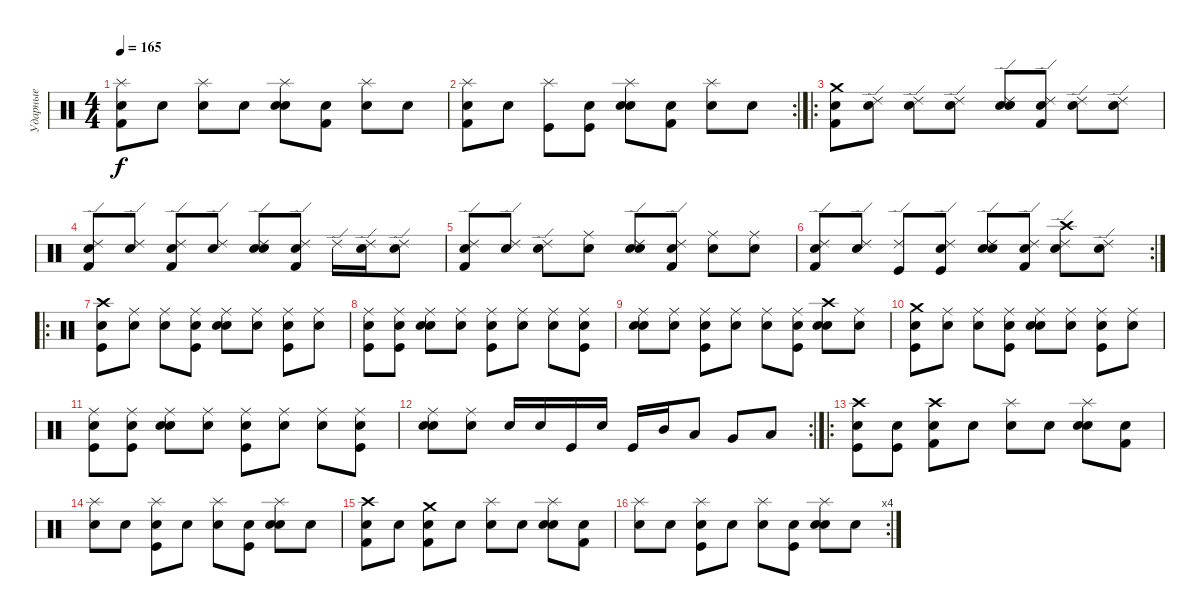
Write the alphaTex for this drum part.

\track ("Ударные" "Ударные") {instrument percussion}
\staff {score}
\articulation defaults
\ts (4 4)
\tempo 165
\clef neutral
\ks c
("Splash (hit)" "Kick (hit) 2" "Snare (hit)").8{dy f} "Snare (hit)".8 ("Splash (hit)" "Snare (hit)").8 "Snare (hit)".8 ("Snare (hit) 2" "Splash (hit)" "Snare (hit)").8 ("Kick (hit) 2" "Snare (hit)").8 ("Splash (hit)" "Snare (hit)").8 "Snare (hit)".8 |
\rc 2
("Splash (hit)" "Kick (hit) 2" "Snare (hit)").8 "Snare (hit)".8 ("Splash (hit)" "Kick (hit)").8 ("Kick (hit)" "Snare (hit)").8 ("Snare (hit) 2" "Splash (hit)" "Snare (hit)").8 ("Kick (hit) 2" "Snare (hit)").8 ("Splash (hit)" "Snare (hit)").8 "Snare (hit)".8 |
\ro
("Crash medium (hit)" "Kick (hit) 2" "Snare (hit)").8 ("Ride (edge) 2" "Snare (hit)").8 ("Ride (edge) 2" "Snare (hit)").8 ("Ride (edge) 2" "Snare (hit)").8 ("Snare (hit) 2" "Ride (edge) 2" "Snare (hit)").8 ("Ride (edge) 2" "Kick (hit) 2" "Snare (hit)").8 ("Ride (edge) 2" "Snare (hit)").8 ("Ride (edge) 2" "Snare (hit)").8 |
("Ride (edge) 2" "Kick (hit) 2" "Snare (hit)").8 ("Ride (edge) 2" "Snare (hit)").8 ("Ride (edge) 2" "Kick (hit) 2" "Snare (hit)").8 ("Ride (edge) 2" "Snare (hit)").8 ("Snare (hit) 2" "Ride (edge) 2" "Snare (hit)").8 ("Ride (edge) 2" "Kick (hit) 2" "Snare (hit)").8 "Ride (edge) 2".16 ("Ride (edge) 2" "Snare (hit)").16 ("Ride (edge) 2" "Snare (hit)").8 |
("Ride (edge) 2" "Kick (hit) 2" "Snare (hit)").8 ("Ride (edge) 2" "Snare (hit)").8 ("Ride (edge) 2" "Snare (hit)").8 ("Ride (middle)" "Snare (hit)").8 ("Snare (hit) 2" "Ride (edge) 2" "Snare (hit)").8 ("Ride (edge) 2" "Kick (hit) 2" "Snare (hit)").8 ("Ride (middle)" "Snare (hit)").8 ("Ride (middle)" "Snare (hit)").8 |
\rc 2
("Ride (edge) 2" "Kick (hit) 2" "Snare (hit)").8 ("Ride (edge) 2" "Snare (hit)").8 ("Ride (edge) 2" "Kick (hit)").8 ("Ride (edge) 2" "Kick (hit)" "Snare (hit)").8 ("Snare (hit) 2" "Ride (edge) 2" "Snare (hit)").8 ("Ride (edge) 2" "Kick (hit) 2" "Snare (hit)").8 ("Crash high (hit)" "Ride (edge) 2" "Snare (hit)").8 ("Ride (edge) 2" "Snare (hit)").8 |
\ro
("Crash high (hit)" "Kick (hit)" "Snare (hit)").8 ("Ride (middle)" "Snare (hit)").8 ("Ride (middle)" "Snare (hit)").8 ("Ride (middle)" "Kick (hit)" "Snare (hit)").8 ("Snare (hit) 2" "Ride (middle)" "Snare (hit)").8 ("Ride (middle)" "Snare (hit)").8 ("Ride (middle)" "Kick (hit)" "Snare (hit)").8 ("Ride (middle)" "Snare (hit)").8 |
("Ride (middle)" "Kick (hit)" "Snare (hit)").8 ("Ride (middle)" "Kick (hit)" "Snare (hit)").8 ("Snare (hit) 2" "Ride (middle)" "Snare (hit)").8 ("Ride (middle)" "Snare (hit)").8 ("Ride (middle)" "Kick (hit)" "Snare (hit)").8 ("Ride (middle)" "Snare (hit)").8 ("Ride (middle)" "Snare (hit)").8 ("Ride (middle)" "Kick (hit)" "Snare (hit)").8 |
("Snare (hit) 2" "Ride (middle)" "Snare (hit)").8 ("Ride (middle)" "Snare (hit)").8 ("Ride (middle)" "Kick (hit)" "Snare (hit)").8 ("Ride (middle)" "Snare (hit)").8 ("Ride (middle)" "Snare (hit)").8 ("Ride (middle)" "Kick (hit)" "Snare (hit)").8 ("Snare (hit) 2" "Crash high (hit)" "Snare (hit)").8 ("Ride (middle)" "Snare (hit)").8 |
("Crash medium (hit)" "Kick (hit)" "Snare (hit)").8 ("Ride (middle)" "Snare (hit)").8 ("Ride (middle)" "Snare (hit)").8 ("Ride (middle)" "Kick (hit)" "Snare (hit)").8 ("Snare (hit) 2" "Ride (middle)" "Snare (hit)").8 ("Ride (middle)" "Snare (hit)").8 ("Ride (middle)" "Kick (hit)" "Snare (hit)").8 ("Ride (middle)" "Snare (hit)").8 |
("Ride (middle)" "Kick (hit)" "Snare (hit)").8 ("Ride (middle)" "Kick (hit)" "Snare (hit)").8 ("Snare (hit) 2" "Ride (middle)" "Snare (hit)").8 ("Ride (middle)" "Snare (hit)").8 ("Ride (middle)" "Kick (hit)" "Snare (hit)").8 ("Ride (middle)" "Snare (hit)").8 ("Ride (middle)" "Snare (hit)").8 ("Ride (middle)" "Kick (hit)" "Snare (hit)").8 |
\rc 2
("Snare (hit) 2" "Ride (middle)" "Snare (hit)").8 ("Ride (middle)" "Snare (hit)").8 "Snare (hit) 2".16 "Snare (hit) 2".16 "Kick (hit)".16 "Snare (hit) 2".16 "Kick (hit)".16 "Mid Tom (hit)".16 "Low Tom (hit)".8 "Very Low Tom (hit)".8 "Low Floor Tom (hit)".8 |
\ro
("Crash high (hit)" "Kick (hit)" "Snare (hit)").8 ("Kick (hit)" "Snare (hit)").8 ("Crash high (hit)" "Kick (hit) 2" "Snare (hit)").8 "Snare (hit)".8 ("Splash (hit)" "Snare (hit)").8 "Snare (hit)".8 ("Snare (hit) 2" "Splash (hit)" "Snare (hit)").8 ("Kick (hit) 2" "Snare (hit)").8 |
("Splash (hit)" "Snare (hit)").8 "Snare (hit)".8 ("Splash (hit)" "Kick (hit)" "Snare (hit)").8 "Snare (hit)".8 ("Splash (hit)" "Snare (hit)").8 ("Kick (hit)" "Snare (hit)").8 ("Snare (hit) 2" "Splash (hit)" "Snare (hit)").8 "Snare (hit)".8 |
("Crash high (hit)" "Kick (hit) 2" "Snare (hit)").8 "Snare (hit)".8 ("Crash medium (hit)" "Kick (hit) 2" "Snare (hit)").8 "Snare (hit)".8 ("Splash (hit)" "Snare (hit)").8 "Snare (hit)".8 ("Snare (hit) 2" "Splash (hit)" "Snare (hit)").8 ("Kick (hit) 2" "Snare (hit)").8 |
\rc 4
("Splash (hit)" "Snare (hit)").8 "Snare (hit)".8 ("Splash (hit)" "Kick (hit)" "Snare (hit)").8 "Snare (hit)".8 ("Splash (hit)" "Snare (hit)").8 ("Kick (hit)" "Snare (hit)").8 ("Snare (hit) 2" "Splash (hit)" "Snare (hit)").8 "Snare (hit)".8
